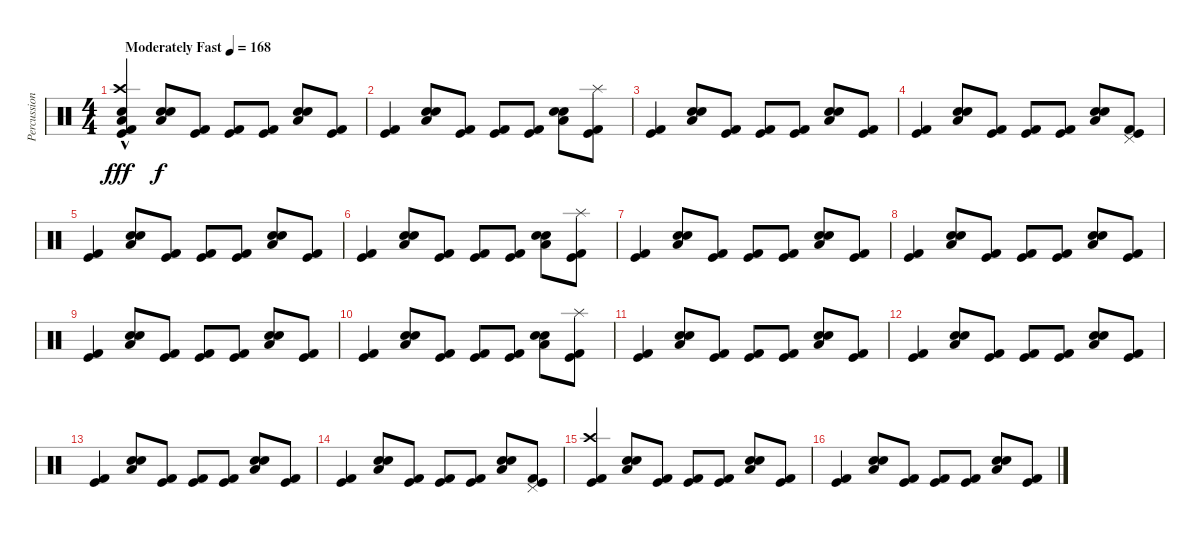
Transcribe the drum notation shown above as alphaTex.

\track ("Percussion" "Percussion") {instrument percussion}
\staff {score}
\articulation defaults
\ts (4 4)
\tempo (168 "Moderately Fast")
\clef neutral
\ks c
("Kick (hit) 2" "Crash high (hit)"{hac} "Kick (hit)" "Electric Snare (hit)" "Low Floor Tom (hit)").4{dy fff} ("Electric Snare (hit)" "Low Floor Tom (hit)" "Snare (hit) 2").8{dy f} ("Kick (hit)" "Kick (hit) 2").8 ("Kick (hit)" "Kick (hit) 2").8 ("Kick (hit)" "Kick (hit) 2").8 ("Electric Snare (hit)" "Low Floor Tom (hit)" "Snare (hit) 2").8 ("Kick (hit)" "Kick (hit) 2").8 |
("Kick (hit)" "Kick (hit) 2").4 ("Electric Snare (hit)" "Low Floor Tom (hit)" "Snare (hit) 2").8 ("Kick (hit)" "Kick (hit) 2").8 ("Kick (hit)" "Kick (hit) 2").8 ("Kick (hit)" "Kick (hit) 2").8 ("Electric Snare (hit)" "Low Floor Tom (hit)" "Snare (hit) 2").8 ("Splash (hit)" "Kick (hit)" "Kick (hit) 2").8 |
("Kick (hit)" "Kick (hit) 2").4 ("Electric Snare (hit)" "Low Floor Tom (hit)" "Snare (hit) 2").8 ("Kick (hit)" "Kick (hit) 2").8 ("Kick (hit)" "Kick (hit) 2").8 ("Kick (hit)" "Kick (hit) 2").8 ("Electric Snare (hit)" "Low Floor Tom (hit)" "Snare (hit) 2").8 ("Kick (hit)" "Kick (hit) 2").8 |
("Kick (hit)" "Kick (hit) 2").4 ("Electric Snare (hit)" "Low Floor Tom (hit)" "Snare (hit) 2").8 ("Kick (hit)" "Kick (hit) 2").8 ("Kick (hit)" "Kick (hit) 2").8 ("Kick (hit)" "Kick (hit) 2").8 ("Electric Snare (hit)" "Low Floor Tom (hit)" "Snare (hit) 2").8 ("Pedal Hi-Hat (hit)" "Kick (hit)" "Kick (hit) 2").8 |
("Kick (hit)" "Kick (hit) 2").4 ("Electric Snare (hit)" "Low Floor Tom (hit)" "Snare (hit) 2").8 ("Kick (hit)" "Kick (hit) 2").8 ("Kick (hit)" "Kick (hit) 2").8 ("Kick (hit)" "Kick (hit) 2").8 ("Electric Snare (hit)" "Low Floor Tom (hit)" "Snare (hit) 2").8 ("Kick (hit)" "Kick (hit) 2").8 |
("Kick (hit)" "Kick (hit) 2").4 ("Electric Snare (hit)" "Low Floor Tom (hit)" "Snare (hit) 2").8 ("Kick (hit)" "Kick (hit) 2").8 ("Kick (hit)" "Kick (hit) 2").8 ("Kick (hit)" "Kick (hit) 2").8 ("Electric Snare (hit)" "Low Floor Tom (hit)" "Snare (hit) 2").8 ("Splash (hit)" "Kick (hit)" "Kick (hit) 2").8 |
("Kick (hit)" "Kick (hit) 2").4 ("Electric Snare (hit)" "Low Floor Tom (hit)" "Snare (hit) 2").8 ("Kick (hit)" "Kick (hit) 2").8 ("Kick (hit)" "Kick (hit) 2").8 ("Kick (hit)" "Kick (hit) 2").8 ("Electric Snare (hit)" "Low Floor Tom (hit)" "Snare (hit) 2").8 ("Kick (hit)" "Kick (hit) 2").8 |
("Kick (hit)" "Kick (hit) 2").4 ("Electric Snare (hit)" "Low Floor Tom (hit)" "Snare (hit) 2").8 ("Kick (hit)" "Kick (hit) 2").8 ("Kick (hit)" "Kick (hit) 2").8 ("Kick (hit)" "Kick (hit) 2").8 ("Electric Snare (hit)" "Low Floor Tom (hit)" "Snare (hit) 2").8 ("Kick (hit)" "Kick (hit) 2").8 |
("Kick (hit)" "Kick (hit) 2").4 ("Electric Snare (hit)" "Low Floor Tom (hit)" "Snare (hit) 2").8 ("Kick (hit)" "Kick (hit) 2").8 ("Kick (hit)" "Kick (hit) 2").8 ("Kick (hit)" "Kick (hit) 2").8 ("Electric Snare (hit)" "Low Floor Tom (hit)" "Snare (hit) 2").8 ("Kick (hit)" "Kick (hit) 2").8 |
("Kick (hit)" "Kick (hit) 2").4 ("Electric Snare (hit)" "Low Floor Tom (hit)" "Snare (hit) 2").8 ("Kick (hit)" "Kick (hit) 2").8 ("Kick (hit)" "Kick (hit) 2").8 ("Kick (hit)" "Kick (hit) 2").8 ("Electric Snare (hit)" "Low Floor Tom (hit)" "Snare (hit) 2").8 ("Splash (hit)" "Kick (hit)" "Kick (hit) 2").8 |
("Kick (hit)" "Kick (hit) 2").4 ("Electric Snare (hit)" "Low Floor Tom (hit)" "Snare (hit) 2").8 ("Kick (hit)" "Kick (hit) 2").8 ("Kick (hit)" "Kick (hit) 2").8 ("Kick (hit)" "Kick (hit) 2").8 ("Electric Snare (hit)" "Low Floor Tom (hit)" "Snare (hit) 2").8 ("Kick (hit)" "Kick (hit) 2").8 |
("Kick (hit)" "Kick (hit) 2").4 ("Electric Snare (hit)" "Low Floor Tom (hit)" "Snare (hit) 2").8 ("Kick (hit)" "Kick (hit) 2").8 ("Kick (hit)" "Kick (hit) 2").8 ("Kick (hit)" "Kick (hit) 2").8 ("Electric Snare (hit)" "Low Floor Tom (hit)" "Snare (hit) 2").8 ("Kick (hit)" "Kick (hit) 2").8 |
("Kick (hit)" "Kick (hit) 2").4 ("Electric Snare (hit)" "Low Floor Tom (hit)" "Snare (hit) 2").8 ("Kick (hit)" "Kick (hit) 2").8 ("Kick (hit)" "Kick (hit) 2").8 ("Kick (hit)" "Kick (hit) 2").8 ("Electric Snare (hit)" "Low Floor Tom (hit)" "Snare (hit) 2").8 ("Kick (hit)" "Kick (hit) 2").8 |
("Kick (hit)" "Kick (hit) 2").4 ("Electric Snare (hit)" "Low Floor Tom (hit)" "Snare (hit) 2").8 ("Kick (hit)" "Kick (hit) 2").8 ("Kick (hit)" "Kick (hit) 2").8 ("Kick (hit)" "Kick (hit) 2").8 ("Electric Snare (hit)" "Low Floor Tom (hit)" "Snare (hit) 2").8 ("Pedal Hi-Hat (hit)" "Kick (hit)" "Kick (hit) 2").8 |
("Crash high (hit)" "Kick (hit)" "Kick (hit) 2").4 ("Electric Snare (hit)" "Low Floor Tom (hit)" "Snare (hit) 2").8 ("Kick (hit)" "Kick (hit) 2").8 ("Kick (hit)" "Kick (hit) 2").8 ("Kick (hit)" "Kick (hit) 2").8 ("Electric Snare (hit)" "Low Floor Tom (hit)" "Snare (hit) 2").8 ("Kick (hit)" "Kick (hit) 2").8 |
("Kick (hit)" "Kick (hit) 2").4 ("Electric Snare (hit)" "Low Floor Tom (hit)" "Snare (hit) 2").8 ("Kick (hit)" "Kick (hit) 2").8 ("Kick (hit)" "Kick (hit) 2").8 ("Kick (hit)" "Kick (hit) 2").8 ("Electric Snare (hit)" "Low Floor Tom (hit)" "Snare (hit) 2").8 ("Kick (hit)" "Kick (hit) 2").8
